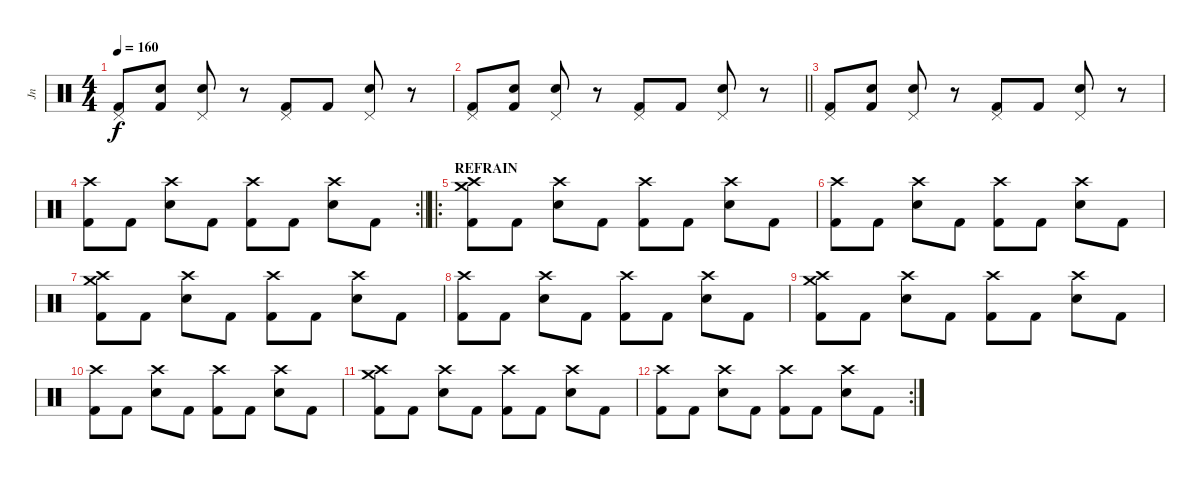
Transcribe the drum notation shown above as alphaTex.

\track ("Jn" "Jn") {instrument percussion}
\staff {score}
\articulation defaults
\ts (4 4)
\tempo 160
\clef neutral
\ks c
("Pedal Hi-Hat (hit)" "Kick (hit) 2").8{dy f} ("Snare (hit)" "Kick (hit) 2").8 ("Pedal Hi-Hat (hit)" "Electric Snare (hit)").8 r.8 ("Pedal Hi-Hat (hit)" "Kick (hit) 2").8 "Kick (hit) 2".8 ("Pedal Hi-Hat (hit)" "Electric Snare (hit)").8 r.8 |
\barLineRight lightlight
("Pedal Hi-Hat (hit)" "Kick (hit) 2").8 ("Snare (hit)" "Kick (hit) 2").8 ("Pedal Hi-Hat (hit)" "Electric Snare (hit)").8 r.8 ("Pedal Hi-Hat (hit)" "Kick (hit) 2").8 "Kick (hit) 2".8 ("Pedal Hi-Hat (hit)" "Electric Snare (hit)").8 r.8 |
\section ("" "")
("Pedal Hi-Hat (hit)" "Kick (hit) 2").8 ("Snare (hit)" "Kick (hit) 2").8 ("Pedal Hi-Hat (hit)" "Electric Snare (hit)").8 r.8 ("Pedal Hi-Hat (hit)" "Kick (hit) 2").8 "Kick (hit) 2".8 ("Pedal Hi-Hat (hit)" "Electric Snare (hit)").8 r.8 |
\rc 2
\barLineRight lightlight
("Crash high (hit)" "Kick (hit) 2").8 "Kick (hit) 2".8 ("Crash high (hit)" "Electric Snare (hit)").8 "Kick (hit) 2".8 ("Crash high (hit)" "Kick (hit) 2").8 "Kick (hit) 2".8 ("Crash high (hit)" "Electric Snare (hit)").8 "Kick (hit) 2".8 |
\ro
\section ("" "REFRAIN")
("Crash medium (hit)" "Crash high (hit)" "Kick (hit) 2").8 "Kick (hit) 2".8 ("Crash high (hit)" "Electric Snare (hit)").8 "Kick (hit) 2".8 ("Crash high (hit)" "Kick (hit) 2").8 "Kick (hit) 2".8 ("Crash high (hit)" "Electric Snare (hit)").8 "Kick (hit) 2".8 |
("Crash high (hit)" "Kick (hit) 2").8 "Kick (hit) 2".8 ("Crash high (hit)" "Electric Snare (hit)").8 "Kick (hit) 2".8 ("Crash high (hit)" "Kick (hit) 2").8 "Kick (hit) 2".8 ("Crash high (hit)" "Electric Snare (hit)").8 "Kick (hit) 2".8 |
("Crash medium (hit)" "Crash high (hit)" "Kick (hit) 2").8 "Kick (hit) 2".8 ("Crash high (hit)" "Electric Snare (hit)").8 "Kick (hit) 2".8 ("Crash high (hit)" "Kick (hit) 2").8 "Kick (hit) 2".8 ("Crash high (hit)" "Electric Snare (hit)").8 "Kick (hit) 2".8 |
("Crash high (hit)" "Kick (hit) 2").8 "Kick (hit) 2".8 ("Crash high (hit)" "Electric Snare (hit)").8 "Kick (hit) 2".8 ("Crash high (hit)" "Kick (hit) 2").8 "Kick (hit) 2".8 ("Crash high (hit)" "Electric Snare (hit)").8 "Kick (hit) 2".8 |
("Crash medium (hit)" "Crash high (hit)" "Kick (hit) 2").8 "Kick (hit) 2".8 ("Crash high (hit)" "Electric Snare (hit)").8 "Kick (hit) 2".8 ("Crash high (hit)" "Kick (hit) 2").8 "Kick (hit) 2".8 ("Crash high (hit)" "Electric Snare (hit)").8 "Kick (hit) 2".8 |
("Crash high (hit)" "Kick (hit) 2").8 "Kick (hit) 2".8 ("Crash high (hit)" "Electric Snare (hit)").8 "Kick (hit) 2".8 ("Crash high (hit)" "Kick (hit) 2").8 "Kick (hit) 2".8 ("Crash high (hit)" "Electric Snare (hit)").8 "Kick (hit) 2".8 |
("Crash medium (hit)" "Crash high (hit)" "Kick (hit) 2").8 "Kick (hit) 2".8 ("Crash high (hit)" "Electric Snare (hit)").8 "Kick (hit) 2".8 ("Crash high (hit)" "Kick (hit) 2").8 "Kick (hit) 2".8 ("Crash high (hit)" "Electric Snare (hit)").8 "Kick (hit) 2".8 |
\rc 2
("Crash high (hit)" "Kick (hit) 2").8 "Kick (hit) 2".8 ("Crash high (hit)" "Electric Snare (hit)").8 "Kick (hit) 2".8 ("Crash high (hit)" "Kick (hit) 2").8 "Kick (hit) 2".8 ("Crash high (hit)" "Electric Snare (hit)").8 "Kick (hit) 2".8
